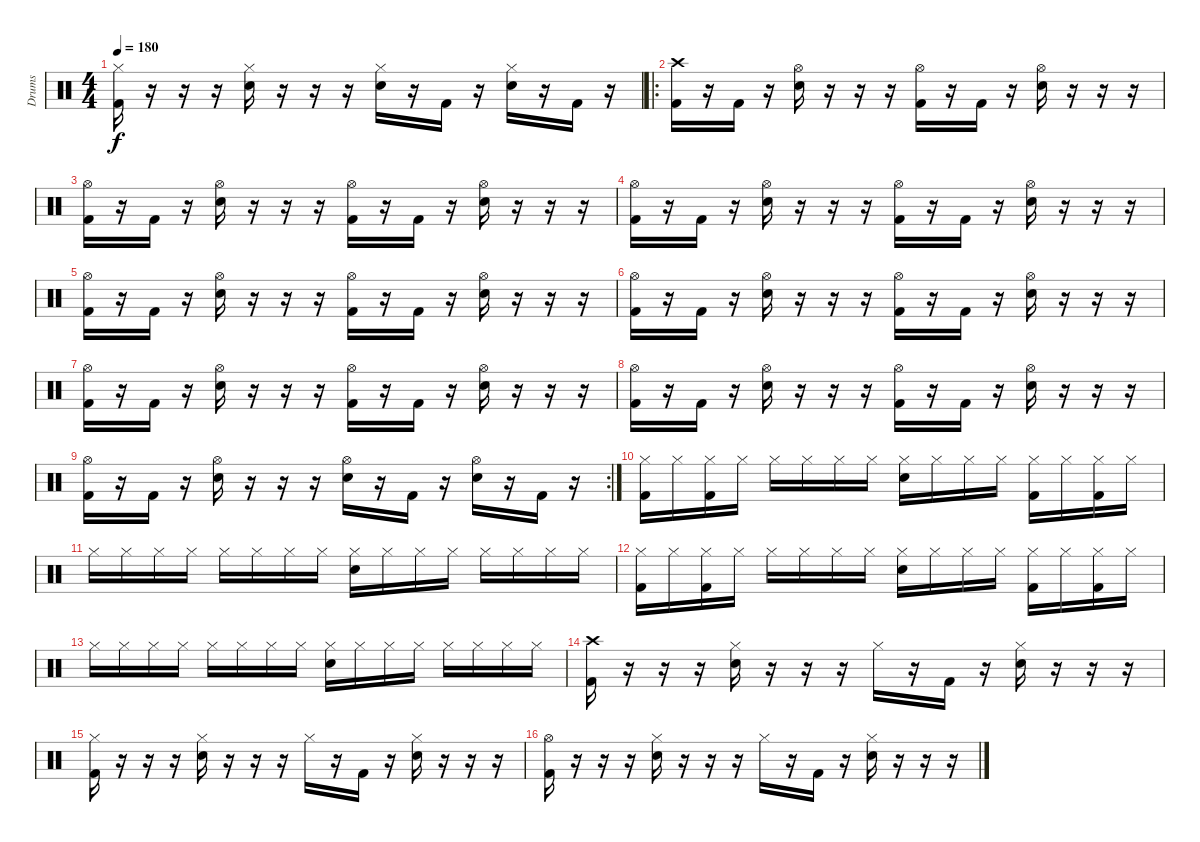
\track ("Drums" "Drums") {instrument percussion}
\staff {score}
\articulation defaults
\ts (4 4)
\tempo 180
\clef neutral
\ks c
("Hi-Hat (closed)" "Kick (hit) 2").16{dy f} r.16 r.16 r.16 ("Hi-Hat (closed)" "Snare (hit) 2").16 r.16 r.16 r.16 ("Hi-Hat (closed)" "Snare (hit) 2").16 r.16 "Kick (hit) 2".16 r.16 ("Hi-Hat (closed)" "Snare (hit) 2").16 r.16 "Kick (hit) 2".16 r.16 |
\ro
("Crash high (hit)" "Kick (hit) 2").16 r.16 "Kick (hit) 2".16 r.16 ("Hi-Hat (open)" "Snare (hit) 2").16 r.16 r.16 r.16 ("Hi-Hat (open)" "Kick (hit) 2").16 r.16 "Kick (hit) 2".16 r.16 ("Hi-Hat (open)" "Snare (hit) 2").16 r.16 r.16 r.16 |
("Hi-Hat (open)" "Kick (hit) 2").16 r.16 "Kick (hit) 2".16 r.16 ("Hi-Hat (open)" "Snare (hit) 2").16 r.16 r.16 r.16 ("Hi-Hat (open)" "Kick (hit) 2").16 r.16 "Kick (hit) 2".16 r.16 ("Hi-Hat (open)" "Snare (hit) 2").16 r.16 r.16 r.16 |
("Hi-Hat (open)" "Kick (hit) 2").16 r.16 "Kick (hit) 2".16 r.16 ("Hi-Hat (open)" "Snare (hit) 2").16 r.16 r.16 r.16 ("Hi-Hat (open)" "Kick (hit) 2").16 r.16 "Kick (hit) 2".16 r.16 ("Hi-Hat (open)" "Snare (hit) 2").16 r.16 r.16 r.16 |
("Hi-Hat (open)" "Kick (hit) 2").16 r.16 "Kick (hit) 2".16 r.16 ("Hi-Hat (open)" "Snare (hit) 2").16 r.16 r.16 r.16 ("Hi-Hat (open)" "Kick (hit) 2").16 r.16 "Kick (hit) 2".16 r.16 ("Hi-Hat (open)" "Snare (hit) 2").16 r.16 r.16 r.16 |
("Hi-Hat (open)" "Kick (hit) 2").16 r.16 "Kick (hit) 2".16 r.16 ("Hi-Hat (open)" "Snare (hit) 2").16 r.16 r.16 r.16 ("Hi-Hat (open)" "Kick (hit) 2").16 r.16 "Kick (hit) 2".16 r.16 ("Hi-Hat (open)" "Snare (hit) 2").16 r.16 r.16 r.16 |
("Hi-Hat (open)" "Kick (hit) 2").16 r.16 "Kick (hit) 2".16 r.16 ("Hi-Hat (open)" "Snare (hit) 2").16 r.16 r.16 r.16 ("Hi-Hat (open)" "Kick (hit) 2").16 r.16 "Kick (hit) 2".16 r.16 ("Hi-Hat (open)" "Snare (hit) 2").16 r.16 r.16 r.16 |
("Hi-Hat (open)" "Kick (hit) 2").16 r.16 "Kick (hit) 2".16 r.16 ("Hi-Hat (open)" "Snare (hit) 2").16 r.16 r.16 r.16 ("Hi-Hat (open)" "Kick (hit) 2").16 r.16 "Kick (hit) 2".16 r.16 ("Hi-Hat (open)" "Snare (hit) 2").16 r.16 r.16 r.16 |
\rc 2
("Hi-Hat (open)" "Kick (hit) 2").16 r.16 "Kick (hit) 2".16 r.16 ("Hi-Hat (open)" "Snare (hit) 2").16 r.16 r.16 r.16 ("Hi-Hat (open)" "Snare (hit) 2").16 r.16 "Kick (hit) 2".16 r.16 ("Hi-Hat (open)" "Snare (hit) 2").16 r.16 "Kick (hit) 2".16 r.16 |
("Hi-Hat (closed)" "Kick (hit) 2").16 "Hi-Hat (closed)".16 ("Hi-Hat (closed)" "Kick (hit) 2").16 "Hi-Hat (closed)".16 "Hi-Hat (closed)".16 "Hi-Hat (closed)".16 "Hi-Hat (closed)".16 "Hi-Hat (closed)".16 ("Hi-Hat (closed)" "Snare (hit) 2").16 "Hi-Hat (closed)".16 "Hi-Hat (closed)".16 "Hi-Hat (closed)".16 ("Hi-Hat (closed)" "Kick (hit) 2").16 "Hi-Hat (closed)".16 ("Hi-Hat (closed)" "Kick (hit) 2").16 "Hi-Hat (closed)".16 |
"Hi-Hat (closed)".16 "Hi-Hat (closed)".16 "Hi-Hat (closed)".16 "Hi-Hat (closed)".16 "Hi-Hat (closed)".16 "Hi-Hat (closed)".16 "Hi-Hat (closed)".16 "Hi-Hat (closed)".16 ("Hi-Hat (closed)" "Snare (hit) 2").16 "Hi-Hat (closed)".16 "Hi-Hat (closed)".16 "Hi-Hat (closed)".16 "Hi-Hat (closed)".16 "Hi-Hat (closed)".16 "Hi-Hat (closed)".16 "Hi-Hat (closed)".16 |
("Hi-Hat (closed)" "Kick (hit) 2").16 "Hi-Hat (closed)".16 ("Hi-Hat (closed)" "Kick (hit) 2").16 "Hi-Hat (closed)".16 "Hi-Hat (closed)".16 "Hi-Hat (closed)".16 "Hi-Hat (closed)".16 "Hi-Hat (closed)".16 ("Hi-Hat (closed)" "Snare (hit) 2").16 "Hi-Hat (closed)".16 "Hi-Hat (closed)".16 "Hi-Hat (closed)".16 ("Hi-Hat (closed)" "Kick (hit) 2").16 "Hi-Hat (closed)".16 ("Hi-Hat (closed)" "Kick (hit) 2").16 "Hi-Hat (closed)".16 |
"Hi-Hat (closed)".16 "Hi-Hat (closed)".16 "Hi-Hat (closed)".16 "Hi-Hat (closed)".16 "Hi-Hat (closed)".16 "Hi-Hat (closed)".16 "Hi-Hat (closed)".16 "Hi-Hat (closed)".16 ("Hi-Hat (closed)" "Snare (hit) 2").16 "Hi-Hat (closed)".16 "Hi-Hat (closed)".16 "Hi-Hat (closed)".16 "Hi-Hat (closed)".16 "Hi-Hat (closed)".16 "Hi-Hat (closed)".16 "Hi-Hat (closed)".16 |
("Crash high (hit)" "Kick (hit) 2").16 r.16 r.16 r.16 ("Hi-Hat (closed)" "Snare (hit) 2").16 r.16 r.16 r.16 "Hi-Hat (closed)".16 r.16 "Kick (hit) 2".16 r.16 ("Hi-Hat (closed)" "Snare (hit) 2").16 r.16 r.16 r.16 |
("Hi-Hat (closed)" "Kick (hit) 2").16 r.16 r.16 r.16 ("Hi-Hat (closed)" "Snare (hit) 2").16 r.16 r.16 r.16 "Hi-Hat (closed)".16 r.16 "Kick (hit) 2".16 r.16 ("Hi-Hat (closed)" "Snare (hit) 2").16 r.16 r.16 r.16 |
("Hi-Hat (open)" "Kick (hit) 2").16 r.16 r.16 r.16 ("Hi-Hat (closed)" "Snare (hit) 2").16 r.16 r.16 r.16 "Hi-Hat (closed)".16 r.16 "Kick (hit) 2".16 r.16 ("Hi-Hat (closed)" "Snare (hit) 2").16 r.16 r.16 r.16
